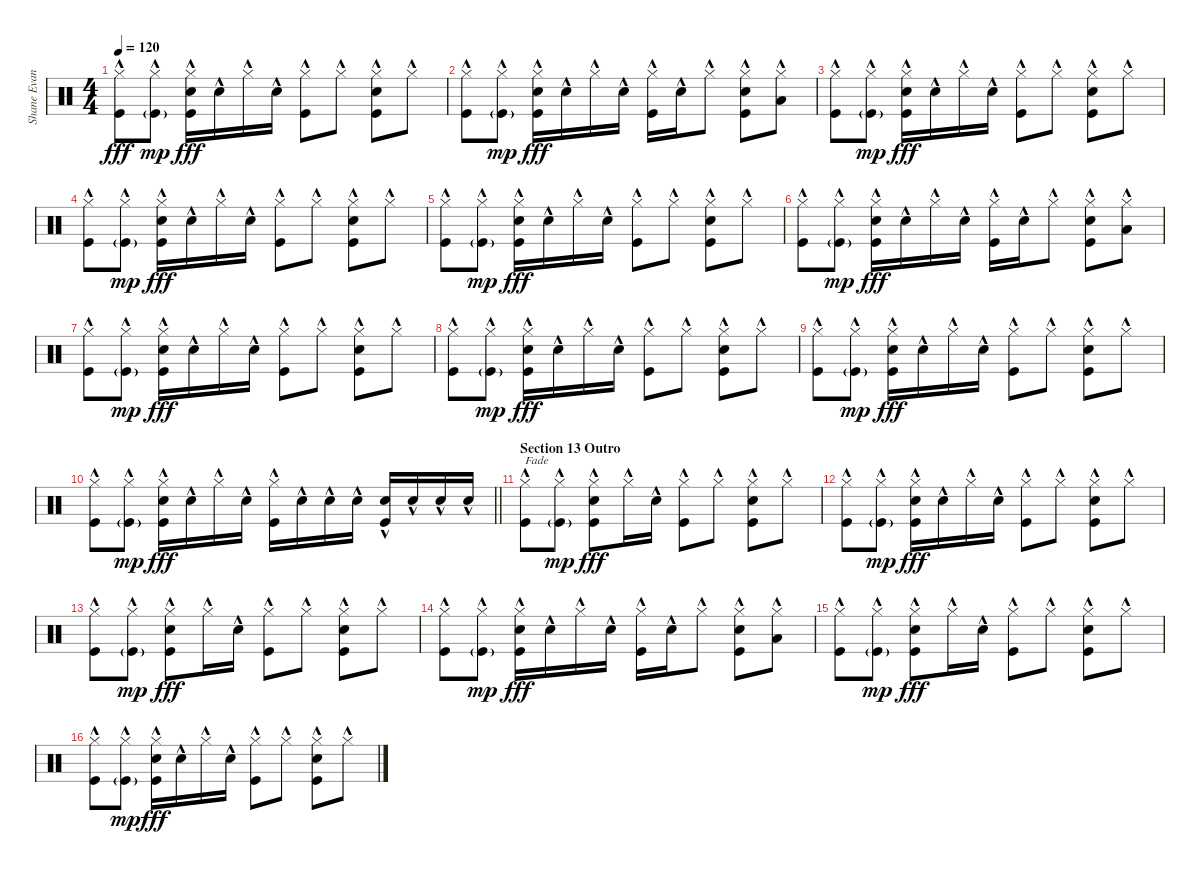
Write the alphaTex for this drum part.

\track ("Shane Evans" "Shane Evan") {instrument percussion}
\staff {score}
\articulation defaults
\ts (4 4)
\tempo 120
\clef neutral
\ks c
("Hi-Hat (closed)"{hac} "Kick (hit)"{hac}).8{dy fff} ("Hi-Hat (closed)"{hac} "Kick (hit)"{g}).8{dy mp} ("Hi-Hat (closed)"{hac} "Electric Snare (hit)"{hac} "Kick (hit)"{hac}).16{dy fff} "Electric Snare (hit)"{hac}.16 "Hi-Hat (closed)"{hac}.16 "Electric Snare (hit)"{hac}.16 ("Hi-Hat (closed)"{hac} "Kick (hit)"{hac}).8 "Hi-Hat (closed)"{hac}.8 ("Hi-Hat (closed)"{hac} "Electric Snare (hit)"{hac} "Kick (hit)"{hac}).8 "Hi-Hat (closed)"{hac}.8 |
("Hi-Hat (closed)"{hac} "Kick (hit)"{hac}).8 ("Hi-Hat (closed)"{hac} "Kick (hit)"{g}).8{dy mp} ("Hi-Hat (closed)"{hac} "Electric Snare (hit)"{hac} "Kick (hit)"{hac}).16{dy fff} "Electric Snare (hit)"{hac}.16 "Hi-Hat (closed)"{hac}.16 "Electric Snare (hit)"{hac}.16 ("Hi-Hat (closed)"{hac} "Kick (hit)"{hac}).16 "Electric Snare (hit)"{hac}.16 "Hi-Hat (closed)"{hac}.8 ("Hi-Hat (closed)"{hac} "Electric Snare (hit)"{hac} "Kick (hit)"{hac}).8 ("Hi-Hat (closed)"{hac} "Low Tom (hit)"{hac}).8 |
("Hi-Hat (closed)"{hac} "Kick (hit)"{hac}).8 ("Hi-Hat (closed)"{hac} "Kick (hit)"{g}).8{dy mp} ("Hi-Hat (closed)"{hac} "Electric Snare (hit)"{hac} "Kick (hit)"{hac}).16{dy fff} "Electric Snare (hit)"{hac}.16 "Hi-Hat (closed)"{hac}.16 "Electric Snare (hit)"{hac}.16 ("Hi-Hat (closed)"{hac} "Kick (hit)"{hac}).8 "Hi-Hat (closed)"{hac}.8 ("Hi-Hat (closed)"{hac} "Electric Snare (hit)"{hac} "Kick (hit)"{hac}).8 "Hi-Hat (closed)"{hac}.8 |
("Hi-Hat (closed)"{hac} "Kick (hit)"{hac}).8 ("Hi-Hat (closed)"{hac} "Kick (hit)"{g}).8{dy mp} ("Hi-Hat (closed)"{hac} "Electric Snare (hit)"{hac} "Kick (hit)"{hac}).16{dy fff} "Electric Snare (hit)"{hac}.16 "Hi-Hat (closed)"{hac}.16 "Electric Snare (hit)"{hac}.16 ("Hi-Hat (closed)"{hac} "Kick (hit)"{hac}).8 "Hi-Hat (closed)"{hac}.8 ("Hi-Hat (closed)"{hac} "Electric Snare (hit)"{hac} "Kick (hit)"{hac}).8 "Hi-Hat (closed)"{hac}.8 |
("Hi-Hat (closed)"{hac} "Kick (hit)"{hac}).8 ("Hi-Hat (closed)"{hac} "Kick (hit)"{g}).8{dy mp} ("Hi-Hat (closed)"{hac} "Electric Snare (hit)"{hac} "Kick (hit)"{hac}).16{dy fff} "Electric Snare (hit)"{hac}.16 "Hi-Hat (closed)"{hac}.16 "Electric Snare (hit)"{hac}.16 ("Hi-Hat (closed)"{hac} "Kick (hit)"{hac}).8 "Hi-Hat (closed)"{hac}.8 ("Hi-Hat (closed)"{hac} "Electric Snare (hit)"{hac} "Kick (hit)"{hac}).8 "Hi-Hat (closed)"{hac}.8 |
("Hi-Hat (closed)"{hac} "Kick (hit)"{hac}).8 ("Hi-Hat (closed)"{hac} "Kick (hit)"{g}).8{dy mp} ("Hi-Hat (closed)"{hac} "Electric Snare (hit)"{hac} "Kick (hit)"{hac}).16{dy fff} "Electric Snare (hit)"{hac}.16 "Hi-Hat (closed)"{hac}.16 "Electric Snare (hit)"{hac}.16 ("Hi-Hat (closed)"{hac} "Kick (hit)"{hac}).16 "Electric Snare (hit)"{hac}.16 "Hi-Hat (closed)"{hac}.8 ("Hi-Hat (closed)"{hac} "Electric Snare (hit)"{hac} "Kick (hit)"{hac}).8 ("Hi-Hat (closed)"{hac} "Low Tom (hit)"{hac}).8 |
("Hi-Hat (closed)"{hac} "Kick (hit)"{hac}).8 ("Hi-Hat (closed)"{hac} "Kick (hit)"{g}).8{dy mp} ("Hi-Hat (closed)"{hac} "Electric Snare (hit)"{hac} "Kick (hit)"{hac}).16{dy fff} "Electric Snare (hit)"{hac}.16 "Hi-Hat (closed)"{hac}.16 "Electric Snare (hit)"{hac}.16 ("Hi-Hat (closed)"{hac} "Kick (hit)"{hac}).8 "Hi-Hat (closed)"{hac}.8 ("Hi-Hat (closed)"{hac} "Electric Snare (hit)"{hac} "Kick (hit)"{hac}).8 "Hi-Hat (closed)"{hac}.8 |
("Hi-Hat (closed)"{hac} "Kick (hit)"{hac}).8 ("Hi-Hat (closed)"{hac} "Kick (hit)"{g}).8{dy mp} ("Hi-Hat (closed)"{hac} "Electric Snare (hit)"{hac} "Kick (hit)"{hac}).16{dy fff} "Electric Snare (hit)"{hac}.16 "Hi-Hat (closed)"{hac}.16 "Electric Snare (hit)"{hac}.16 ("Hi-Hat (closed)"{hac} "Kick (hit)"{hac}).8 "Hi-Hat (closed)"{hac}.8 ("Hi-Hat (closed)"{hac} "Electric Snare (hit)"{hac} "Kick (hit)"{hac}).8 "Hi-Hat (closed)"{hac}.8 |
("Hi-Hat (closed)"{hac} "Kick (hit)"{hac}).8 ("Hi-Hat (closed)"{hac} "Kick (hit)"{g}).8{dy mp} ("Hi-Hat (closed)"{hac} "Electric Snare (hit)"{hac} "Kick (hit)"{hac}).16{dy fff} "Electric Snare (hit)"{hac}.16 "Hi-Hat (closed)"{hac}.16 "Electric Snare (hit)"{hac}.16 ("Hi-Hat (closed)"{hac} "Kick (hit)"{hac}).8 "Hi-Hat (closed)"{hac}.8 ("Hi-Hat (closed)"{hac} "Electric Snare (hit)"{hac} "Kick (hit)"{hac}).8 "Hi-Hat (closed)"{hac}.8 |
\barLineRight lightlight
("Hi-Hat (closed)"{hac} "Kick (hit)"{hac}).8 ("Hi-Hat (closed)"{hac} "Kick (hit)"{g}).8{dy mp} ("Hi-Hat (closed)"{hac} "Electric Snare (hit)"{hac} "Kick (hit)"{hac}).16{dy fff} "Electric Snare (hit)"{hac}.16 "Hi-Hat (closed)"{hac}.16 "Electric Snare (hit)"{hac}.16 ("Hi-Hat (closed)"{hac} "Kick (hit)"{hac}).16 "Electric Snare (hit)"{hac}.16 "Electric Snare (hit)"{hac}.16 "Electric Snare (hit)"{hac}.16 ("Electric Snare (hit)"{hac} "Kick (hit)"{hac}).16 "Electric Snare (hit)"{hac}.16 "Electric Snare (hit)"{hac}.16 "Electric Snare (hit)"{hac}.16 |
\section ("" "Section 13 Outro")
("Hi-Hat (closed)"{hac} "Kick (hit)"{hac}).8{txt "Fade" volume 15} ("Hi-Hat (closed)"{hac} "Kick (hit)"{g}).8{dy mp} ("Hi-Hat (closed)"{hac} "Electric Snare (hit)"{hac} "Kick (hit)"{hac}).8{dy fff} "Hi-Hat (closed)"{hac}.16 "Electric Snare (hit)"{hac}.16 ("Hi-Hat (closed)"{hac} "Kick (hit)"{hac}).8 "Hi-Hat (closed)"{hac}.8 ("Hi-Hat (closed)"{hac} "Electric Snare (hit)"{hac} "Kick (hit)"{hac}).8 "Hi-Hat (closed)"{hac}.8 |
("Hi-Hat (closed)"{hac} "Kick (hit)"{hac}).8 ("Hi-Hat (closed)"{hac} "Kick (hit)"{g}).8{dy mp} ("Hi-Hat (closed)"{hac} "Electric Snare (hit)"{hac} "Kick (hit)"{hac}).16{dy fff} "Electric Snare (hit)"{hac}.16 "Hi-Hat (closed)"{hac}.16 "Electric Snare (hit)"{hac}.16 ("Hi-Hat (closed)"{hac} "Kick (hit)"{hac}).8 "Hi-Hat (closed)"{hac}.8 ("Hi-Hat (closed)"{hac} "Electric Snare (hit)"{hac} "Kick (hit)"{hac}).8 "Hi-Hat (closed)"{hac}.8 |
("Hi-Hat (closed)"{hac} "Kick (hit)"{hac}).8 ("Hi-Hat (closed)"{hac} "Kick (hit)"{g}).8{dy mp} ("Hi-Hat (closed)"{hac} "Electric Snare (hit)"{hac} "Kick (hit)"{hac}).8{dy fff} "Hi-Hat (closed)"{hac}.16 "Electric Snare (hit)"{hac}.16 ("Hi-Hat (closed)"{hac} "Kick (hit)"{hac}).8 "Hi-Hat (closed)"{hac}.8 ("Hi-Hat (closed)"{hac} "Electric Snare (hit)"{hac} "Kick (hit)"{hac}).8 "Hi-Hat (closed)"{hac}.8 |
("Hi-Hat (closed)"{hac} "Kick (hit)"{hac}).8 ("Hi-Hat (closed)"{hac} "Kick (hit)"{g}).8{dy mp} ("Hi-Hat (closed)"{hac} "Electric Snare (hit)"{hac} "Kick (hit)"{hac}).16{dy fff} "Electric Snare (hit)"{hac}.16 "Hi-Hat (closed)"{hac}.16 "Electric Snare (hit)"{hac}.16 ("Hi-Hat (closed)"{hac} "Kick (hit)"{hac}).16 "Electric Snare (hit)"{hac}.16 "Hi-Hat (closed)"{hac}.8 ("Hi-Hat (closed)"{hac} "Electric Snare (hit)"{hac} "Kick (hit)"{hac}).8 ("Hi-Hat (closed)"{hac} "Low Tom (hit)"{hac}).8 |
("Hi-Hat (closed)"{hac} "Kick (hit)"{hac}).8{volume 15} ("Hi-Hat (closed)"{hac} "Kick (hit)"{g}).8{dy mp} ("Hi-Hat (closed)"{hac} "Electric Snare (hit)"{hac} "Kick (hit)"{hac}).8{dy fff} "Hi-Hat (closed)"{hac}.16 "Electric Snare (hit)"{hac}.16 ("Hi-Hat (closed)"{hac} "Kick (hit)"{hac}).8 "Hi-Hat (closed)"{hac}.8 ("Hi-Hat (closed)"{hac} "Electric Snare (hit)"{hac} "Kick (hit)"{hac}).8 "Hi-Hat (closed)"{hac}.8 |
("Hi-Hat (closed)"{hac} "Kick (hit)"{hac}).8 ("Hi-Hat (closed)"{hac} "Kick (hit)"{g}).8{dy mp} ("Hi-Hat (closed)"{hac} "Electric Snare (hit)"{hac} "Kick (hit)"{hac}).16{dy fff} "Electric Snare (hit)"{hac}.16 "Hi-Hat (closed)"{hac}.16 "Electric Snare (hit)"{hac}.16 ("Hi-Hat (closed)"{hac} "Kick (hit)"{hac}).8 "Hi-Hat (closed)"{hac}.8 ("Hi-Hat (closed)"{hac} "Electric Snare (hit)"{hac} "Kick (hit)"{hac}).8 "Hi-Hat (closed)"{hac}.8
